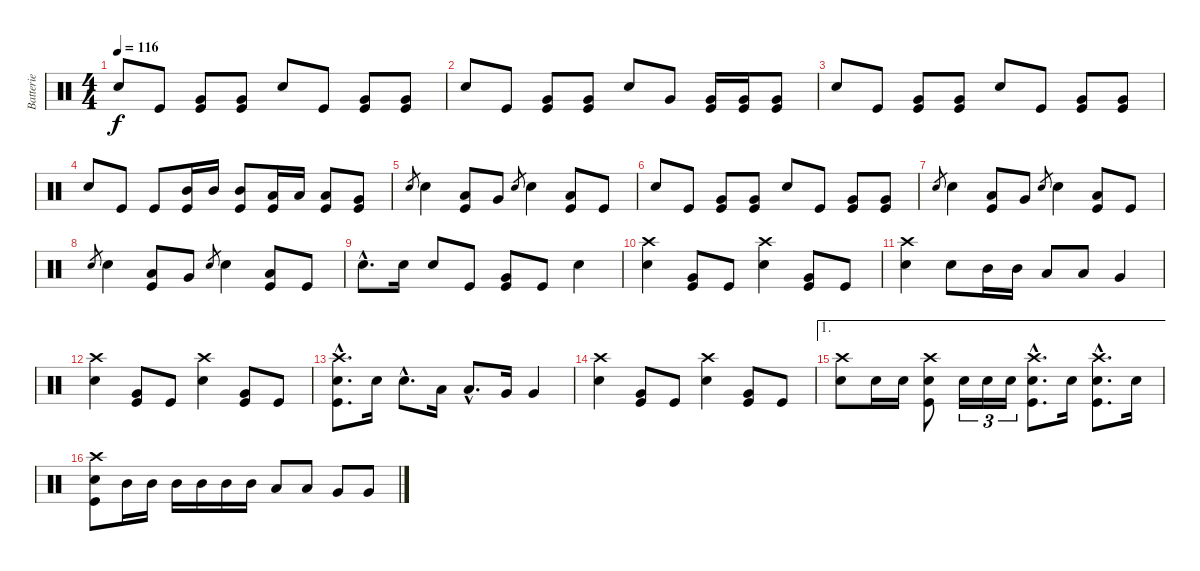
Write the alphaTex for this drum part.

\track ("Batterie" "Batterie") {instrument percussion}
\staff {score}
\articulation defaults
\ts (4 4)
\tempo 116
\clef neutral
\ks c "Snare (hit) 2".8{dy f} "Kick (hit)".8
("Very Low Tom (hit)" "Kick (hit)").8 ("Very Low Tom (hit)" "Kick (hit)").8 "Snare (hit) 2".8 "Kick (hit)".8 ("Very Low Tom (hit)" "Kick (hit)").8 ("Very Low Tom (hit)" "Kick (hit)").8 |
"Snare (hit) 2".8 "Kick (hit)".8 ("Very Low Tom (hit)" "Kick (hit)").8 ("Very Low Tom (hit)" "Kick (hit)").8 "Snare (hit) 2".8 "Very Low Tom (hit)".8 ("Very Low Tom (hit)" "Kick (hit)").16 ("Very Low Tom (hit)" "Kick (hit)").16 ("Very Low Tom (hit)" "Kick (hit)").8 |
"Snare (hit) 2".8 "Kick (hit)".8 ("Very Low Tom (hit)" "Kick (hit)").8 ("Very Low Tom (hit)" "Kick (hit)").8 "Snare (hit) 2".8 "Kick (hit)".8 ("Very Low Tom (hit)" "Kick (hit)").8 ("Very Low Tom (hit)" "Kick (hit)").8 |
"Snare (hit) 2".8 "Kick (hit)".8 "Kick (hit)".8 ("Mid Tom (hit)" "Kick (hit)").16 "Mid Tom (hit)".16 ("Mid Tom (hit)" "Kick (hit)").8 ("Low Tom (hit)" "Kick (hit)").16 "Low Tom (hit)".16 ("Low Tom (hit)" "Kick (hit)").8 ("Very Low Tom (hit)" "Kick (hit)").8 |
"Snare (hit) 2".8{gr} "Snare (hit) 2".4 ("Low Tom (hit)" "Kick (hit)").8 "Very Low Tom (hit)".8 "Snare (hit) 2".8{gr} "Snare (hit) 2".4 ("Low Tom (hit)" "Kick (hit)").8 "Kick (hit)".8 |
"Snare (hit) 2".8 "Kick (hit)".8 ("Very Low Tom (hit)" "Kick (hit)").8 ("Very Low Tom (hit)" "Kick (hit)").8 "Snare (hit) 2".8 "Kick (hit)".8 ("Very Low Tom (hit)" "Kick (hit)").8 ("Very Low Tom (hit)" "Kick (hit)").8 |
"Snare (hit) 2".8{gr} "Snare (hit) 2".4 ("Low Tom (hit)" "Kick (hit)").8 "Very Low Tom (hit)".8 "Snare (hit) 2".8{gr} "Snare (hit) 2".4 ("Low Tom (hit)" "Kick (hit)").8 "Kick (hit)".8 |
"Snare (hit) 2".8{gr} "Snare (hit) 2".4 ("Low Tom (hit)" "Kick (hit)").8 "Very Low Tom (hit)".8 "Snare (hit) 2".8{gr} "Snare (hit) 2".4 ("Low Tom (hit)" "Kick (hit)").8 "Kick (hit)".8 |
"Snare (hit) 2"{hac}.8{d} "Snare (hit) 2".16 "Snare (hit) 2".8 "Kick (hit)".8 ("Very Low Tom (hit)" "Kick (hit)").8 "Kick (hit)".8 "Snare (hit) 2".4 |
("Crash high (hit)" "Snare (hit) 2").4 ("Very Low Tom (hit)" "Kick (hit)").8 "Kick (hit)".8 ("Crash high (hit)" "Snare (hit) 2").4 ("Very Low Tom (hit)" "Kick (hit)").8 "Kick (hit)".8 |
("Crash high (hit)" "Snare (hit) 2").4 "Snare (hit) 2".8 "Mid Tom (hit)".16 "Mid Tom (hit)".16 "Low Tom (hit)".8 "Low Tom (hit)".8 "Very Low Tom (hit)".4 |
("Crash high (hit)" "Snare (hit) 2").4 ("Very Low Tom (hit)" "Kick (hit)").8 "Kick (hit)".8 ("Crash high (hit)" "Snare (hit) 2").4 ("Very Low Tom (hit)" "Kick (hit)").8 "Kick (hit)".8 |
("Crash high (hit)"{hac} "Snare (hit) 2"{hac} "Kick (hit)"{hac}).8{d} "Snare (hit) 2".16 "Snare (hit) 2"{hac}.8{d} "Low Tom (hit)".16 "Low Tom (hit)"{hac}.8{d} "Very Low Tom (hit)".16 "Very Low Tom (hit)".4 |
("Crash high (hit)" "Snare (hit) 2").4 ("Very Low Tom (hit)" "Kick (hit)").8 "Kick (hit)".8 ("Crash high (hit)" "Snare (hit) 2").4 ("Very Low Tom (hit)" "Kick (hit)").8 "Kick (hit)".8 |
\ae 1
("Crash high (hit)" "Snare (hit) 2").8 "Snare (hit) 2".16 "Snare (hit) 2".16 ("Crash high (hit)" "Snare (hit) 2" "Kick (hit)").8 "Snare (hit) 2".16{tu (3 2)} "Snare (hit) 2".16{tu (3 2)} "Snare (hit) 2".16{tu (3 2)} ("Crash high (hit)"{hac} "Snare (hit) 2"{hac} "Kick (hit)"{hac}).8{d} "Snare (hit) 2".16 ("Crash high (hit)"{hac} "Snare (hit) 2"{hac} "Kick (hit)"{hac}).8{d} "Snare (hit) 2".16 |
("Crash high (hit)" "Snare (hit) 2" "Kick (hit)").8 "Mid Tom (hit)".16 "Mid Tom (hit)".16 "Mid Tom (hit)".16 "Mid Tom (hit)".16 "Mid Tom (hit)".16 "Mid Tom (hit)".16 "Low Tom (hit)".8 "Low Tom (hit)".8 "Very Low Tom (hit)".8 "Very Low Tom (hit)".8
